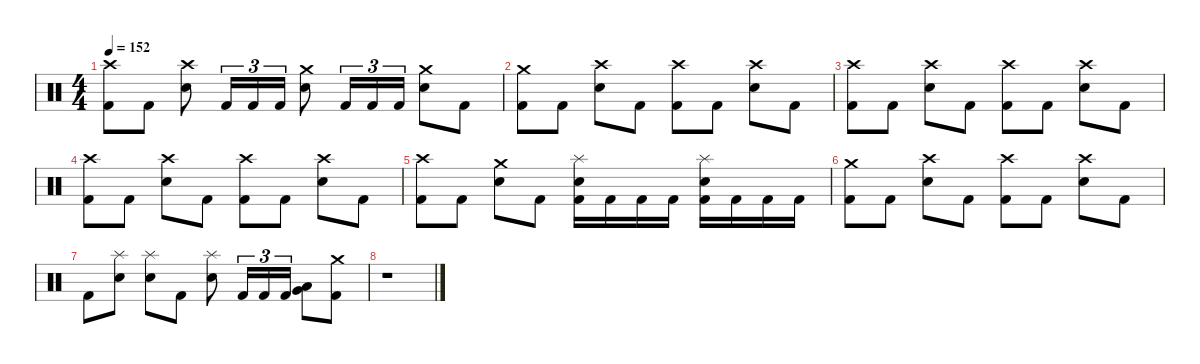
\defaultSystemsLayout 4
\hideDynamics
\bracketExtendMode nobrackets
\singleTrackTrackNamePolicy hidden
\multiTrackTrackNamePolicy hidden
\firstSystemTrackNameMode fullname
\firstSystemTrackNameOrientation horizontal
\otherSystemsTrackNameOrientation horizontal
\track ("Percussion" "drm.") {defaultSystemsLayout 4 instrument percussion}
\staff {score}
\articulation defaults
\ts (4 4)
\tempo 152
\clef neutral
\ks c
("Crash high (hit)" "Kick (hit) 2").8{dy f beam Down} "Kick (hit) 2".8{beam Down} ("Crash high (hit)" "Snare (hit) 2").8{beam Down} "Kick (hit) 2".16{tu (3 2) beam Up} "Kick (hit) 2".16{tu (3 2) beam Up} "Kick (hit) 2".16{tu (3 2) beam Up} ("Crash medium (hit)" "Snare (hit) 2").8{beam Down} "Kick (hit) 2".16{tu (3 2) beam Up} "Kick (hit) 2".16{tu (3 2) beam Up} "Kick (hit) 2".16{tu (3 2) beam Up} ("Crash medium (hit)" "Snare (hit) 2").8{beam Down} "Kick (hit) 2".8{beam Down} |
("Crash medium (hit)" "Kick (hit) 2").8{beam Down} "Kick (hit) 2".8{beam Down} ("Crash high (hit)" "Snare (hit) 2").8{beam Down} "Kick (hit) 2".8{beam Down} ("Crash high (hit)" "Kick (hit) 2").8{beam Down} "Kick (hit) 2".8{beam Down} ("Crash high (hit)" "Snare (hit) 2").8{beam Down} "Kick (hit) 2".8{beam Down} |
("Crash high (hit)" "Kick (hit) 2").8{beam Down} "Kick (hit) 2".8{beam Down} ("Crash high (hit)" "Snare (hit) 2").8{beam Down} "Kick (hit) 2".8{beam Down} ("Crash high (hit)" "Kick (hit) 2").8{beam Down} "Kick (hit) 2".8{beam Down} ("Crash high (hit)" "Snare (hit) 2").8{beam Down} "Kick (hit) 2".8{beam Down} |
("Crash high (hit)" "Kick (hit) 2").8{beam Down} "Kick (hit) 2".8{beam Down} ("Crash high (hit)" "Snare (hit) 2").8{beam Down} "Kick (hit) 2".8{beam Down} ("Crash high (hit)" "Kick (hit) 2").8{beam Down} "Kick (hit) 2".8{beam Down} ("Crash high (hit)" "Snare (hit) 2").8{beam Down} "Kick (hit) 2".8{beam Down} |
("Crash high (hit)" "Kick (hit) 2").8{beam Down} "Kick (hit) 2".8{beam Down} ("Crash medium (hit)" "Snare (hit) 2").8{beam Down} "Kick (hit) 2".8{beam Down} ("Splash (hit)" "Snare (hit) 2" "Kick (hit) 2").16{beam Down} "Kick (hit) 2".16{beam Down} "Kick (hit) 2".16{beam Down} "Kick (hit) 2".16{beam Down} ("Splash (hit)" "Snare (hit) 2" "Kick (hit) 2").16{beam Down} "Kick (hit) 2".16{beam Down} "Kick (hit) 2".16{beam Down} "Kick (hit) 2".16{beam Down} |
("Crash medium (hit)" "Kick (hit) 2").8{beam Down} "Kick (hit) 2".8{beam Down} ("Crash high (hit)" "Snare (hit) 2").8{beam Down} "Kick (hit) 2".8{beam Down} ("Crash high (hit)" "Kick (hit) 2").8{beam Down} "Kick (hit) 2".8{beam Down} ("Crash high (hit)" "Snare (hit) 2").8{beam Down} "Kick (hit) 2".8{beam Down} |
"Kick (hit) 2".8{beam Down} ("Splash (hit)" "Snare (hit) 2").8{beam Down} ("Splash (hit)" "Snare (hit) 2").8{beam Down} "Kick (hit) 2".8{beam Down} ("Splash (hit)" "Snare (hit) 2").8{beam Down} "Kick (hit) 2".16{tu (3 2) beam Up} "Kick (hit) 2".16{tu (3 2) beam Up} "Kick (hit) 2".16{tu (3 2) beam Up} ("Low Tom (hit)" "Very Low Tom (hit)").8{beam Down} ("Crash medium (hit)" "Kick (hit) 2").8{beam Down} |
r.1{beam Down}
